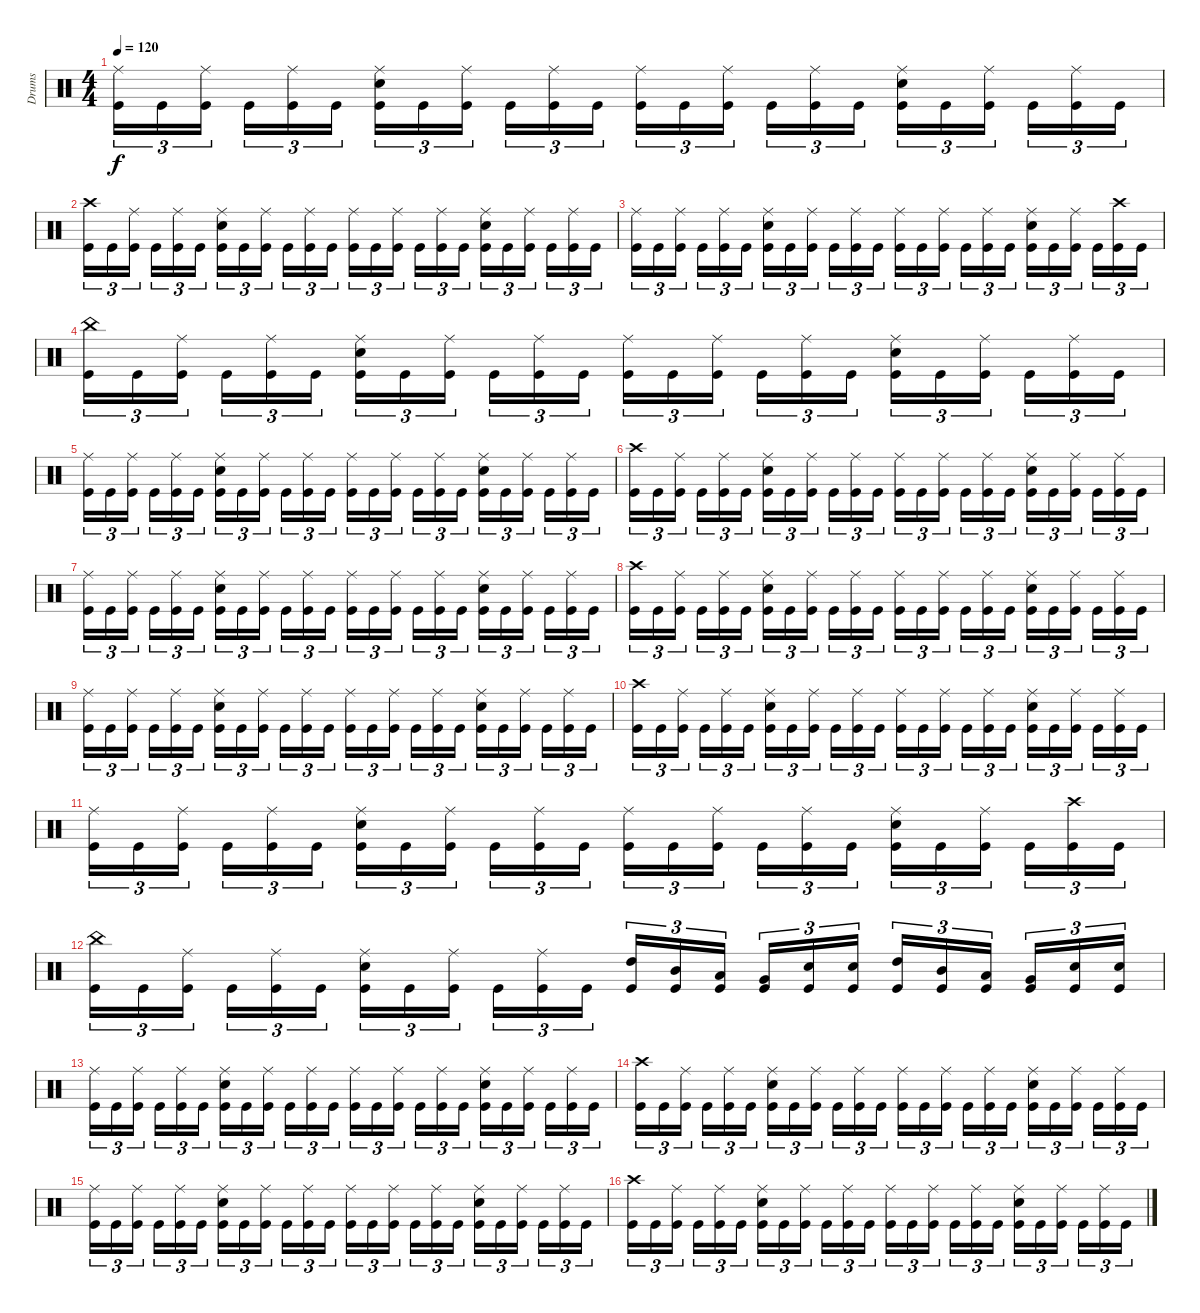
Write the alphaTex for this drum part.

\track ("Drums" "Drums") {instrument percussion}
\staff {score}
\articulation defaults
\ts (4 4)
\tempo 120
\clef neutral
\ks c
("Ride (middle)" "Kick (hit)").16{tu (3 2) dy f} "Kick (hit)".16{tu (3 2)} ("Ride (middle)" "Kick (hit)").16{tu (3 2) beam splitsecondary} "Kick (hit)".16{tu (3 2)} ("Ride (middle)" "Kick (hit)").16{tu (3 2)} "Kick (hit)".16{tu (3 2)} ("Ride (middle)" "Snare (hit) 2" "Kick (hit)").16{tu (3 2)} "Kick (hit)".16{tu (3 2)} ("Ride (middle)" "Kick (hit)").16{tu (3 2) beam splitsecondary} "Kick (hit)".16{tu (3 2)} ("Ride (middle)" "Kick (hit)").16{tu (3 2)} "Kick (hit)".16{tu (3 2)} ("Ride (middle)" "Kick (hit)").16{tu (3 2)} "Kick (hit)".16{tu (3 2)} ("Ride (middle)" "Kick (hit)").16{tu (3 2) beam splitsecondary} "Kick (hit)".16{tu (3 2)} ("Ride (middle)" "Kick (hit)").16{tu (3 2)} "Kick (hit)".16{tu (3 2)} ("Ride (middle)" "Snare (hit) 2" "Kick (hit)").16{tu (3 2)} "Kick (hit)".16{tu (3 2)} ("Ride (middle)" "Kick (hit)").16{tu (3 2) beam splitsecondary} "Kick (hit)".16{tu (3 2)} ("Ride (middle)" "Kick (hit)").16{tu (3 2)} "Kick (hit)".16{tu (3 2)} |
("Crash high (hit)" "Kick (hit)").16{tu (3 2)} "Kick (hit)".16{tu (3 2)} ("Ride (middle)" "Kick (hit)").16{tu (3 2) beam splitsecondary} "Kick (hit)".16{tu (3 2)} ("Ride (middle)" "Kick (hit)").16{tu (3 2)} "Kick (hit)".16{tu (3 2)} ("Ride (middle)" "Snare (hit) 2" "Kick (hit)").16{tu (3 2)} "Kick (hit)".16{tu (3 2)} ("Ride (middle)" "Kick (hit)").16{tu (3 2) beam splitsecondary} "Kick (hit)".16{tu (3 2)} ("Ride (middle)" "Kick (hit)").16{tu (3 2)} "Kick (hit)".16{tu (3 2)} ("Ride (middle)" "Kick (hit)").16{tu (3 2)} "Kick (hit)".16{tu (3 2)} ("Ride (middle)" "Kick (hit)").16{tu (3 2) beam splitsecondary} "Kick (hit)".16{tu (3 2)} ("Ride (middle)" "Kick (hit)").16{tu (3 2)} "Kick (hit)".16{tu (3 2)} ("Ride (middle)" "Snare (hit) 2" "Kick (hit)").16{tu (3 2)} "Kick (hit)".16{tu (3 2)} ("Ride (middle)" "Kick (hit)").16{tu (3 2) beam splitsecondary} "Kick (hit)".16{tu (3 2)} ("Ride (middle)" "Kick (hit)").16{tu (3 2)} "Kick (hit)".16{tu (3 2)} |
("Ride (middle)" "Kick (hit)").16{tu (3 2)} "Kick (hit)".16{tu (3 2)} ("Ride (middle)" "Kick (hit)").16{tu (3 2) beam splitsecondary} "Kick (hit)".16{tu (3 2)} ("Ride (middle)" "Kick (hit)").16{tu (3 2)} "Kick (hit)".16{tu (3 2)} ("Ride (middle)" "Snare (hit) 2" "Kick (hit)").16{tu (3 2)} "Kick (hit)".16{tu (3 2)} ("Ride (middle)" "Kick (hit)").16{tu (3 2) beam splitsecondary} "Kick (hit)".16{tu (3 2)} ("Ride (middle)" "Kick (hit)").16{tu (3 2)} "Kick (hit)".16{tu (3 2)} ("Ride (middle)" "Kick (hit)").16{tu (3 2)} "Kick (hit)".16{tu (3 2)} ("Ride (middle)" "Kick (hit)").16{tu (3 2) beam splitsecondary} "Kick (hit)".16{tu (3 2)} ("Ride (middle)" "Kick (hit)").16{tu (3 2)} "Kick (hit)".16{tu (3 2)} ("Ride (middle)" "Snare (hit) 2" "Kick (hit)").16{tu (3 2)} "Kick (hit)".16{tu (3 2)} ("Ride (middle)" "Kick (hit)").16{tu (3 2) beam splitsecondary} "Kick (hit)".16{tu (3 2)} ("Crash high (hit)" "Kick (hit)").16{tu (3 2)} "Kick (hit)".16{tu (3 2)} |
("China (hit)" "Kick (hit)").16{tu (3 2)} "Kick (hit)".16{tu (3 2)} ("Ride (middle)" "Kick (hit)").16{tu (3 2) beam splitsecondary} "Kick (hit)".16{tu (3 2)} ("Ride (middle)" "Kick (hit)").16{tu (3 2)} "Kick (hit)".16{tu (3 2)} ("Ride (middle)" "Snare (hit) 2" "Kick (hit)").16{tu (3 2)} "Kick (hit)".16{tu (3 2)} ("Ride (middle)" "Kick (hit)").16{tu (3 2) beam splitsecondary} "Kick (hit)".16{tu (3 2)} ("Ride (middle)" "Kick (hit)").16{tu (3 2)} "Kick (hit)".16{tu (3 2)} ("Ride (middle)" "Kick (hit)").16{tu (3 2)} "Kick (hit)".16{tu (3 2)} ("Ride (middle)" "Kick (hit)").16{tu (3 2) beam splitsecondary} "Kick (hit)".16{tu (3 2)} ("Ride (middle)" "Kick (hit)").16{tu (3 2)} "Kick (hit)".16{tu (3 2)} ("Ride (middle)" "Snare (hit) 2" "Kick (hit)").16{tu (3 2)} "Kick (hit)".16{tu (3 2)} ("Ride (middle)" "Kick (hit)").16{tu (3 2) beam splitsecondary} "Kick (hit)".16{tu (3 2)} ("Ride (middle)" "Kick (hit)").16{tu (3 2)} "Kick (hit)".16{tu (3 2)} |
("Ride (middle)" "Kick (hit)").16{tu (3 2)} "Kick (hit)".16{tu (3 2)} ("Ride (middle)" "Kick (hit)").16{tu (3 2) beam splitsecondary} "Kick (hit)".16{tu (3 2)} ("Ride (middle)" "Kick (hit)").16{tu (3 2)} "Kick (hit)".16{tu (3 2)} ("Ride (middle)" "Snare (hit) 2" "Kick (hit)").16{tu (3 2)} "Kick (hit)".16{tu (3 2)} ("Ride (middle)" "Kick (hit)").16{tu (3 2) beam splitsecondary} "Kick (hit)".16{tu (3 2)} ("Ride (middle)" "Kick (hit)").16{tu (3 2)} "Kick (hit)".16{tu (3 2)} ("Ride (middle)" "Kick (hit)").16{tu (3 2)} "Kick (hit)".16{tu (3 2)} ("Ride (middle)" "Kick (hit)").16{tu (3 2) beam splitsecondary} "Kick (hit)".16{tu (3 2)} ("Ride (middle)" "Kick (hit)").16{tu (3 2)} "Kick (hit)".16{tu (3 2)} ("Ride (middle)" "Snare (hit) 2" "Kick (hit)").16{tu (3 2)} "Kick (hit)".16{tu (3 2)} ("Ride (middle)" "Kick (hit)").16{tu (3 2) beam splitsecondary} "Kick (hit)".16{tu (3 2)} ("Ride (middle)" "Kick (hit)").16{tu (3 2)} "Kick (hit)".16{tu (3 2)} |
("Crash high (hit)" "Kick (hit)").16{tu (3 2)} "Kick (hit)".16{tu (3 2)} ("Ride (middle)" "Kick (hit)").16{tu (3 2) beam splitsecondary} "Kick (hit)".16{tu (3 2)} ("Ride (middle)" "Kick (hit)").16{tu (3 2)} "Kick (hit)".16{tu (3 2)} ("Ride (middle)" "Snare (hit) 2" "Kick (hit)").16{tu (3 2)} "Kick (hit)".16{tu (3 2)} ("Ride (middle)" "Kick (hit)").16{tu (3 2) beam splitsecondary} "Kick (hit)".16{tu (3 2)} ("Ride (middle)" "Kick (hit)").16{tu (3 2)} "Kick (hit)".16{tu (3 2)} ("Ride (middle)" "Kick (hit)").16{tu (3 2)} "Kick (hit)".16{tu (3 2)} ("Ride (middle)" "Kick (hit)").16{tu (3 2) beam splitsecondary} "Kick (hit)".16{tu (3 2)} ("Ride (middle)" "Kick (hit)").16{tu (3 2)} "Kick (hit)".16{tu (3 2)} ("Ride (middle)" "Snare (hit) 2" "Kick (hit)").16{tu (3 2)} "Kick (hit)".16{tu (3 2)} ("Ride (middle)" "Kick (hit)").16{tu (3 2) beam splitsecondary} "Kick (hit)".16{tu (3 2)} ("Ride (middle)" "Kick (hit)").16{tu (3 2)} "Kick (hit)".16{tu (3 2)} |
("Ride (middle)" "Kick (hit)").16{tu (3 2)} "Kick (hit)".16{tu (3 2)} ("Ride (middle)" "Kick (hit)").16{tu (3 2) beam splitsecondary} "Kick (hit)".16{tu (3 2)} ("Ride (middle)" "Kick (hit)").16{tu (3 2)} "Kick (hit)".16{tu (3 2)} ("Ride (middle)" "Snare (hit) 2" "Kick (hit)").16{tu (3 2)} "Kick (hit)".16{tu (3 2)} ("Ride (middle)" "Kick (hit)").16{tu (3 2) beam splitsecondary} "Kick (hit)".16{tu (3 2)} ("Ride (middle)" "Kick (hit)").16{tu (3 2)} "Kick (hit)".16{tu (3 2)} ("Ride (middle)" "Kick (hit)").16{tu (3 2)} "Kick (hit)".16{tu (3 2)} ("Ride (middle)" "Kick (hit)").16{tu (3 2) beam splitsecondary} "Kick (hit)".16{tu (3 2)} ("Ride (middle)" "Kick (hit)").16{tu (3 2)} "Kick (hit)".16{tu (3 2)} ("Ride (middle)" "Snare (hit) 2" "Kick (hit)").16{tu (3 2)} "Kick (hit)".16{tu (3 2)} ("Ride (middle)" "Kick (hit)").16{tu (3 2) beam splitsecondary} "Kick (hit)".16{tu (3 2)} ("Ride (middle)" "Kick (hit)").16{tu (3 2)} "Kick (hit)".16{tu (3 2)} |
("Crash high (hit)" "Kick (hit)").16{tu (3 2)} "Kick (hit)".16{tu (3 2)} ("Ride (middle)" "Kick (hit)").16{tu (3 2) beam splitsecondary} "Kick (hit)".16{tu (3 2)} ("Ride (middle)" "Kick (hit)").16{tu (3 2)} "Kick (hit)".16{tu (3 2)} ("Ride (middle)" "Snare (hit) 2" "Kick (hit)").16{tu (3 2)} "Kick (hit)".16{tu (3 2)} ("Ride (middle)" "Kick (hit)").16{tu (3 2) beam splitsecondary} "Kick (hit)".16{tu (3 2)} ("Ride (middle)" "Kick (hit)").16{tu (3 2)} "Kick (hit)".16{tu (3 2)} ("Ride (middle)" "Kick (hit)").16{tu (3 2)} "Kick (hit)".16{tu (3 2)} ("Ride (middle)" "Kick (hit)").16{tu (3 2) beam splitsecondary} "Kick (hit)".16{tu (3 2)} ("Ride (middle)" "Kick (hit)").16{tu (3 2)} "Kick (hit)".16{tu (3 2)} ("Ride (middle)" "Snare (hit) 2" "Kick (hit)").16{tu (3 2)} "Kick (hit)".16{tu (3 2)} ("Ride (middle)" "Kick (hit)").16{tu (3 2) beam splitsecondary} "Kick (hit)".16{tu (3 2)} ("Ride (middle)" "Kick (hit)").16{tu (3 2)} "Kick (hit)".16{tu (3 2)} |
("Ride (middle)" "Kick (hit)").16{tu (3 2)} "Kick (hit)".16{tu (3 2)} ("Ride (middle)" "Kick (hit)").16{tu (3 2) beam splitsecondary} "Kick (hit)".16{tu (3 2)} ("Ride (middle)" "Kick (hit)").16{tu (3 2)} "Kick (hit)".16{tu (3 2)} ("Ride (middle)" "Snare (hit) 2" "Kick (hit)").16{tu (3 2)} "Kick (hit)".16{tu (3 2)} ("Ride (middle)" "Kick (hit)").16{tu (3 2) beam splitsecondary} "Kick (hit)".16{tu (3 2)} ("Ride (middle)" "Kick (hit)").16{tu (3 2)} "Kick (hit)".16{tu (3 2)} ("Ride (middle)" "Kick (hit)").16{tu (3 2)} "Kick (hit)".16{tu (3 2)} ("Ride (middle)" "Kick (hit)").16{tu (3 2) beam splitsecondary} "Kick (hit)".16{tu (3 2)} ("Ride (middle)" "Kick (hit)").16{tu (3 2)} "Kick (hit)".16{tu (3 2)} ("Ride (middle)" "Snare (hit) 2" "Kick (hit)").16{tu (3 2)} "Kick (hit)".16{tu (3 2)} ("Ride (middle)" "Kick (hit)").16{tu (3 2) beam splitsecondary} "Kick (hit)".16{tu (3 2)} ("Ride (middle)" "Kick (hit)").16{tu (3 2)} "Kick (hit)".16{tu (3 2)} |
("Crash high (hit)" "Kick (hit)").16{tu (3 2)} "Kick (hit)".16{tu (3 2)} ("Ride (middle)" "Kick (hit)").16{tu (3 2) beam splitsecondary} "Kick (hit)".16{tu (3 2)} ("Ride (middle)" "Kick (hit)").16{tu (3 2)} "Kick (hit)".16{tu (3 2)} ("Ride (middle)" "Snare (hit) 2" "Kick (hit)").16{tu (3 2)} "Kick (hit)".16{tu (3 2)} ("Ride (middle)" "Kick (hit)").16{tu (3 2) beam splitsecondary} "Kick (hit)".16{tu (3 2)} ("Ride (middle)" "Kick (hit)").16{tu (3 2)} "Kick (hit)".16{tu (3 2)} ("Ride (middle)" "Kick (hit)").16{tu (3 2)} "Kick (hit)".16{tu (3 2)} ("Ride (middle)" "Kick (hit)").16{tu (3 2) beam splitsecondary} "Kick (hit)".16{tu (3 2)} ("Ride (middle)" "Kick (hit)").16{tu (3 2)} "Kick (hit)".16{tu (3 2)} ("Ride (middle)" "Snare (hit) 2" "Kick (hit)").16{tu (3 2)} "Kick (hit)".16{tu (3 2)} ("Ride (middle)" "Kick (hit)").16{tu (3 2) beam splitsecondary} "Kick (hit)".16{tu (3 2)} ("Ride (middle)" "Kick (hit)").16{tu (3 2)} "Kick (hit)".16{tu (3 2)} |
("Ride (middle)" "Kick (hit)").16{tu (3 2)} "Kick (hit)".16{tu (3 2)} ("Ride (middle)" "Kick (hit)").16{tu (3 2) beam splitsecondary} "Kick (hit)".16{tu (3 2)} ("Ride (middle)" "Kick (hit)").16{tu (3 2)} "Kick (hit)".16{tu (3 2)} ("Ride (middle)" "Snare (hit) 2" "Kick (hit)").16{tu (3 2)} "Kick (hit)".16{tu (3 2)} ("Ride (middle)" "Kick (hit)").16{tu (3 2) beam splitsecondary} "Kick (hit)".16{tu (3 2)} ("Ride (middle)" "Kick (hit)").16{tu (3 2)} "Kick (hit)".16{tu (3 2)} ("Ride (middle)" "Kick (hit)").16{tu (3 2)} "Kick (hit)".16{tu (3 2)} ("Ride (middle)" "Kick (hit)").16{tu (3 2) beam splitsecondary} "Kick (hit)".16{tu (3 2)} ("Ride (middle)" "Kick (hit)").16{tu (3 2)} "Kick (hit)".16{tu (3 2)} ("Ride (middle)" "Snare (hit) 2" "Kick (hit)").16{tu (3 2)} "Kick (hit)".16{tu (3 2)} ("Ride (middle)" "Kick (hit)").16{tu (3 2) beam splitsecondary} "Kick (hit)".16{tu (3 2)} ("Crash high (hit)" "Kick (hit)").16{tu (3 2)} "Kick (hit)".16{tu (3 2)} |
("China (hit)" "Kick (hit)").16{tu (3 2)} "Kick (hit)".16{tu (3 2)} ("Ride (middle)" "Kick (hit)").16{tu (3 2) beam splitsecondary} "Kick (hit)".16{tu (3 2)} ("Ride (middle)" "Kick (hit)").16{tu (3 2)} "Kick (hit)".16{tu (3 2)} ("Ride (middle)" "Snare (hit) 2" "Kick (hit)").16{tu (3 2)} "Kick (hit)".16{tu (3 2)} ("Ride (middle)" "Kick (hit)").16{tu (3 2) beam splitsecondary} "Kick (hit)".16{tu (3 2)} ("Ride (middle)" "Kick (hit)").16{tu (3 2)} "Kick (hit)".16{tu (3 2)} ("High Tom (hit)" "Kick (hit)").16{tu (3 2)} ("Mid Tom (hit)" "Kick (hit)").16{tu (3 2)} ("Low Tom (hit)" "Kick (hit)").16{tu (3 2) beam splitsecondary} ("Very Low Tom (hit)" "Kick (hit)").16{tu (3 2)} ("Snare (hit) 2" "Kick (hit)").16{tu (3 2)} ("Snare (hit) 2" "Kick (hit)").16{tu (3 2)} ("High Tom (hit)" "Kick (hit)").16{tu (3 2)} ("Mid Tom (hit)" "Kick (hit)").16{tu (3 2)} ("Low Tom (hit)" "Kick (hit)").16{tu (3 2) beam splitsecondary} ("Very Low Tom (hit)" "Kick (hit)").16{tu (3 2)} ("Snare (hit) 2" "Kick (hit)").16{tu (3 2)} ("Snare (hit) 2" "Kick (hit)").16{tu (3 2)} |
("Ride (middle)" "Kick (hit)").16{tu (3 2)} "Kick (hit)".16{tu (3 2)} ("Ride (middle)" "Kick (hit)").16{tu (3 2) beam splitsecondary} "Kick (hit)".16{tu (3 2)} ("Ride (middle)" "Kick (hit)").16{tu (3 2)} "Kick (hit)".16{tu (3 2)} ("Ride (middle)" "Snare (hit) 2" "Kick (hit)").16{tu (3 2)} "Kick (hit)".16{tu (3 2)} ("Ride (middle)" "Kick (hit)").16{tu (3 2) beam splitsecondary} "Kick (hit)".16{tu (3 2)} ("Ride (middle)" "Kick (hit)").16{tu (3 2)} "Kick (hit)".16{tu (3 2)} ("Ride (middle)" "Kick (hit)").16{tu (3 2)} "Kick (hit)".16{tu (3 2)} ("Ride (middle)" "Kick (hit)").16{tu (3 2) beam splitsecondary} "Kick (hit)".16{tu (3 2)} ("Ride (middle)" "Kick (hit)").16{tu (3 2)} "Kick (hit)".16{tu (3 2)} ("Ride (middle)" "Snare (hit) 2" "Kick (hit)").16{tu (3 2)} "Kick (hit)".16{tu (3 2)} ("Ride (middle)" "Kick (hit)").16{tu (3 2) beam splitsecondary} "Kick (hit)".16{tu (3 2)} ("Ride (middle)" "Kick (hit)").16{tu (3 2)} "Kick (hit)".16{tu (3 2)} |
("Crash high (hit)" "Kick (hit)").16{tu (3 2)} "Kick (hit)".16{tu (3 2)} ("Ride (middle)" "Kick (hit)").16{tu (3 2) beam splitsecondary} "Kick (hit)".16{tu (3 2)} ("Ride (middle)" "Kick (hit)").16{tu (3 2)} "Kick (hit)".16{tu (3 2)} ("Ride (middle)" "Snare (hit) 2" "Kick (hit)").16{tu (3 2)} "Kick (hit)".16{tu (3 2)} ("Ride (middle)" "Kick (hit)").16{tu (3 2) beam splitsecondary} "Kick (hit)".16{tu (3 2)} ("Ride (middle)" "Kick (hit)").16{tu (3 2)} "Kick (hit)".16{tu (3 2)} ("Ride (middle)" "Kick (hit)").16{tu (3 2)} "Kick (hit)".16{tu (3 2)} ("Ride (middle)" "Kick (hit)").16{tu (3 2) beam splitsecondary} "Kick (hit)".16{tu (3 2)} ("Ride (middle)" "Kick (hit)").16{tu (3 2)} "Kick (hit)".16{tu (3 2)} ("Ride (middle)" "Snare (hit) 2" "Kick (hit)").16{tu (3 2)} "Kick (hit)".16{tu (3 2)} ("Ride (middle)" "Kick (hit)").16{tu (3 2) beam splitsecondary} "Kick (hit)".16{tu (3 2)} ("Ride (middle)" "Kick (hit)").16{tu (3 2)} "Kick (hit)".16{tu (3 2)} |
("Ride (middle)" "Kick (hit)").16{tu (3 2)} "Kick (hit)".16{tu (3 2)} ("Ride (middle)" "Kick (hit)").16{tu (3 2) beam splitsecondary} "Kick (hit)".16{tu (3 2)} ("Ride (middle)" "Kick (hit)").16{tu (3 2)} "Kick (hit)".16{tu (3 2)} ("Ride (middle)" "Snare (hit) 2" "Kick (hit)").16{tu (3 2)} "Kick (hit)".16{tu (3 2)} ("Ride (middle)" "Kick (hit)").16{tu (3 2) beam splitsecondary} "Kick (hit)".16{tu (3 2)} ("Ride (middle)" "Kick (hit)").16{tu (3 2)} "Kick (hit)".16{tu (3 2)} ("Ride (middle)" "Kick (hit)").16{tu (3 2)} "Kick (hit)".16{tu (3 2)} ("Ride (middle)" "Kick (hit)").16{tu (3 2) beam splitsecondary} "Kick (hit)".16{tu (3 2)} ("Ride (middle)" "Kick (hit)").16{tu (3 2)} "Kick (hit)".16{tu (3 2)} ("Ride (middle)" "Snare (hit) 2" "Kick (hit)").16{tu (3 2)} "Kick (hit)".16{tu (3 2)} ("Ride (middle)" "Kick (hit)").16{tu (3 2) beam splitsecondary} "Kick (hit)".16{tu (3 2)} ("Ride (middle)" "Kick (hit)").16{tu (3 2)} "Kick (hit)".16{tu (3 2)} |
("Crash high (hit)" "Kick (hit)").16{tu (3 2)} "Kick (hit)".16{tu (3 2)} ("Ride (middle)" "Kick (hit)").16{tu (3 2) beam splitsecondary} "Kick (hit)".16{tu (3 2)} ("Ride (middle)" "Kick (hit)").16{tu (3 2)} "Kick (hit)".16{tu (3 2)} ("Ride (middle)" "Snare (hit) 2" "Kick (hit)").16{tu (3 2)} "Kick (hit)".16{tu (3 2)} ("Ride (middle)" "Kick (hit)").16{tu (3 2) beam splitsecondary} "Kick (hit)".16{tu (3 2)} ("Ride (middle)" "Kick (hit)").16{tu (3 2)} "Kick (hit)".16{tu (3 2)} ("Ride (middle)" "Kick (hit)").16{tu (3 2)} "Kick (hit)".16{tu (3 2)} ("Ride (middle)" "Kick (hit)").16{tu (3 2) beam splitsecondary} "Kick (hit)".16{tu (3 2)} ("Ride (middle)" "Kick (hit)").16{tu (3 2)} "Kick (hit)".16{tu (3 2)} ("Ride (middle)" "Snare (hit) 2" "Kick (hit)").16{tu (3 2)} "Kick (hit)".16{tu (3 2)} ("Ride (middle)" "Kick (hit)").16{tu (3 2) beam splitsecondary} "Kick (hit)".16{tu (3 2)} ("Ride (middle)" "Kick (hit)").16{tu (3 2)} "Kick (hit)".16{tu (3 2)}
